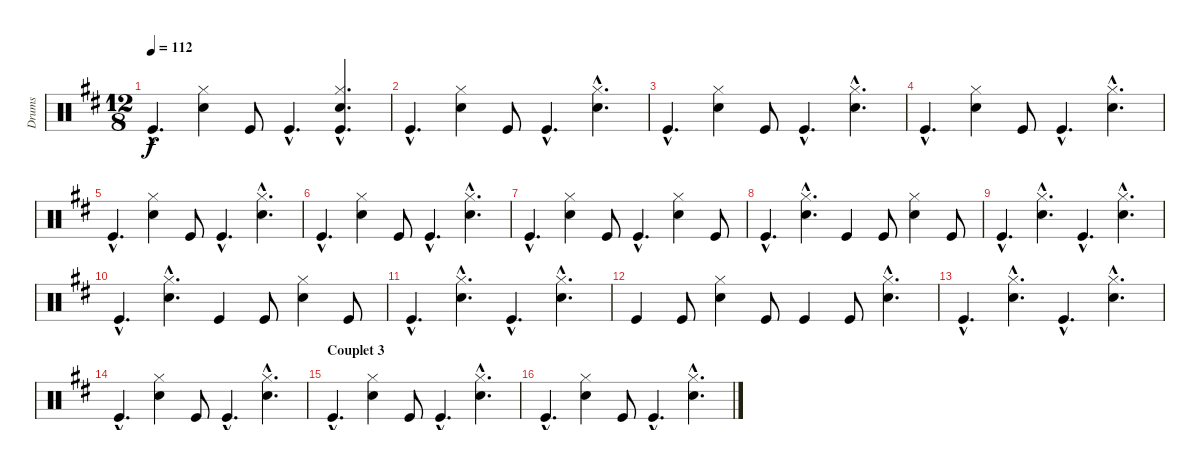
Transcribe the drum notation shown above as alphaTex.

\track ("Drums" "Drums") {instrument percussion}
\staff {score}
\articulation defaults
\ts (12 8)
\tempo 112
\clef neutral
\ks d "Kick (hit)"{hac}.4{d dy f}
("Hi-Hat (closed)" "Electric Snare (hit)").4 "Kick (hit)".8 "Kick (hit)"{hac}.4{d} ("Hi-Hat (closed)"{hac} "Electric Snare (hit)"{hac} "Kick (hit)"{hac}).4{d} |
"Kick (hit)"{hac}.4{d} ("Hi-Hat (closed)" "Electric Snare (hit)").4 "Kick (hit)".8 "Kick (hit)"{hac}.4{d} ("Hi-Hat (closed)"{hac} "Electric Snare (hit)"{hac}).4{d} |
"Kick (hit)"{hac}.4{d} ("Hi-Hat (closed)" "Electric Snare (hit)").4 "Kick (hit)".8 "Kick (hit)"{hac}.4{d} ("Hi-Hat (closed)"{hac} "Electric Snare (hit)"{hac}).4{d} |
"Kick (hit)"{hac}.4{d} ("Hi-Hat (closed)" "Electric Snare (hit)").4 "Kick (hit)".8 "Kick (hit)"{hac}.4{d} ("Hi-Hat (closed)"{hac} "Electric Snare (hit)"{hac}).4{d} |
"Kick (hit)"{hac}.4{d} ("Hi-Hat (closed)" "Electric Snare (hit)").4 "Kick (hit)".8 "Kick (hit)"{hac}.4{d} ("Hi-Hat (closed)"{hac} "Electric Snare (hit)"{hac}).4{d} |
"Kick (hit)"{hac}.4{d} ("Hi-Hat (closed)" "Electric Snare (hit)").4 "Kick (hit)".8 "Kick (hit)"{hac}.4{d} ("Hi-Hat (closed)"{hac} "Electric Snare (hit)"{hac}).4{d} |
"Kick (hit)"{hac}.4{d} ("Hi-Hat (closed)" "Electric Snare (hit)").4 "Kick (hit)".8 "Kick (hit)"{hac}.4{d} ("Hi-Hat (closed)" "Electric Snare (hit)").4 "Kick (hit)".8 |
"Kick (hit)"{hac}.4{d} ("Hi-Hat (closed)"{hac} "Electric Snare (hit)"{hac}).4{d} "Kick (hit)".4 "Kick (hit)".8 ("Hi-Hat (closed)" "Electric Snare (hit)").4 "Kick (hit)".8 |
"Kick (hit)"{hac}.4{d} ("Hi-Hat (closed)"{hac} "Electric Snare (hit)"{hac}).4{d} "Kick (hit)"{hac}.4{d} ("Hi-Hat (closed)"{hac} "Electric Snare (hit)"{hac}).4{d} |
"Kick (hit)"{hac}.4{d} ("Hi-Hat (closed)"{hac} "Electric Snare (hit)"{hac}).4{d} "Kick (hit)".4 "Kick (hit)".8 ("Hi-Hat (closed)" "Electric Snare (hit)").4 "Kick (hit)".8 |
"Kick (hit)"{hac}.4{d} ("Hi-Hat (closed)"{hac} "Electric Snare (hit)"{hac}).4{d} "Kick (hit)"{hac}.4{d} ("Hi-Hat (closed)"{hac} "Electric Snare (hit)"{hac}).4{d} |
"Kick (hit)".4 "Kick (hit)".8 ("Hi-Hat (closed)" "Electric Snare (hit)").4 "Kick (hit)".8 "Kick (hit)".4 "Kick (hit)".8 ("Hi-Hat (closed)"{hac} "Electric Snare (hit)"{hac}).4{d} |
"Kick (hit)"{hac}.4{d} ("Hi-Hat (closed)"{hac} "Electric Snare (hit)"{hac}).4{d} "Kick (hit)"{hac}.4{d} ("Hi-Hat (closed)"{hac} "Electric Snare (hit)"{hac}).4{d} |
"Kick (hit)"{hac}.4{d} ("Hi-Hat (closed)" "Electric Snare (hit)").4 "Kick (hit)".8 "Kick (hit)"{hac}.4{d} ("Hi-Hat (closed)"{hac} "Electric Snare (hit)"{hac}).4{d} |
\section ("" "Couplet 3")
"Kick (hit)"{hac}.4{d} ("Hi-Hat (closed)" "Electric Snare (hit)").4 "Kick (hit)".8 "Kick (hit)"{hac}.4{d} ("Hi-Hat (closed)"{hac} "Electric Snare (hit)"{hac}).4{d} |
"Kick (hit)"{hac}.4{d} ("Hi-Hat (closed)" "Electric Snare (hit)").4 "Kick (hit)".8 "Kick (hit)"{hac}.4{d} ("Hi-Hat (closed)"{hac} "Electric Snare (hit)"{hac}).4{d}
